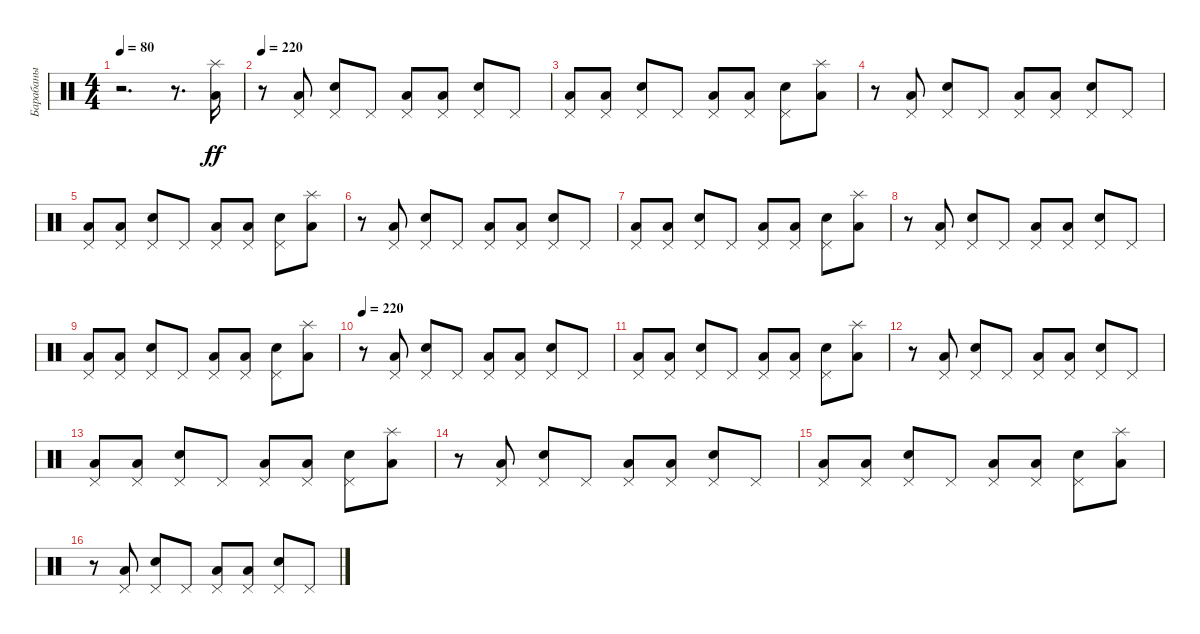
\track ("Барабаны" "Барабаны") {instrument percussion}
\staff {score}
\articulation defaults
\ts (4 4)
\tempo 80
\clef neutral
\ks c
r.2{d dy ff} r.8{d} ("Low Floor Tom (hit)" "Splash (hit)").16 |
\tempo 220
r.8 ("Low Floor Tom (hit)" "Pedal Hi-Hat (hit)").8 ("Electric Snare (hit)" "Pedal Hi-Hat (hit)").8 "Pedal Hi-Hat (hit)".8 ("Low Floor Tom (hit)" "Pedal Hi-Hat (hit)").8 ("Low Floor Tom (hit)" "Pedal Hi-Hat (hit)").8 ("Electric Snare (hit)" "Pedal Hi-Hat (hit)").8 "Pedal Hi-Hat (hit)".8 |
("Low Floor Tom (hit)" "Pedal Hi-Hat (hit)").8 ("Low Floor Tom (hit)" "Pedal Hi-Hat (hit)").8 ("Electric Snare (hit)" "Pedal Hi-Hat (hit)").8 "Pedal Hi-Hat (hit)".8 ("Low Floor Tom (hit)" "Pedal Hi-Hat (hit)").8 ("Low Floor Tom (hit)" "Pedal Hi-Hat (hit)").8 ("Electric Snare (hit)" "Pedal Hi-Hat (hit)").8 ("Low Floor Tom (hit)" "Splash (hit)").8 |
r.8 ("Low Floor Tom (hit)" "Pedal Hi-Hat (hit)").8 ("Electric Snare (hit)" "Pedal Hi-Hat (hit)").8 "Pedal Hi-Hat (hit)".8 ("Low Floor Tom (hit)" "Pedal Hi-Hat (hit)").8 ("Low Floor Tom (hit)" "Pedal Hi-Hat (hit)").8 ("Electric Snare (hit)" "Pedal Hi-Hat (hit)").8 "Pedal Hi-Hat (hit)".8 |
("Low Floor Tom (hit)" "Pedal Hi-Hat (hit)").8 ("Low Floor Tom (hit)" "Pedal Hi-Hat (hit)").8 ("Electric Snare (hit)" "Pedal Hi-Hat (hit)").8 "Pedal Hi-Hat (hit)".8 ("Low Floor Tom (hit)" "Pedal Hi-Hat (hit)").8 ("Low Floor Tom (hit)" "Pedal Hi-Hat (hit)").8 ("Electric Snare (hit)" "Pedal Hi-Hat (hit)").8 ("Low Floor Tom (hit)" "Splash (hit)").8 |
r.8 ("Low Floor Tom (hit)" "Pedal Hi-Hat (hit)").8 ("Electric Snare (hit)" "Pedal Hi-Hat (hit)").8 "Pedal Hi-Hat (hit)".8 ("Low Floor Tom (hit)" "Pedal Hi-Hat (hit)").8 ("Low Floor Tom (hit)" "Pedal Hi-Hat (hit)").8 ("Electric Snare (hit)" "Pedal Hi-Hat (hit)").8 "Pedal Hi-Hat (hit)".8 |
("Low Floor Tom (hit)" "Pedal Hi-Hat (hit)").8 ("Low Floor Tom (hit)" "Pedal Hi-Hat (hit)").8 ("Electric Snare (hit)" "Pedal Hi-Hat (hit)").8 "Pedal Hi-Hat (hit)".8 ("Low Floor Tom (hit)" "Pedal Hi-Hat (hit)").8 ("Low Floor Tom (hit)" "Pedal Hi-Hat (hit)").8 ("Electric Snare (hit)" "Pedal Hi-Hat (hit)").8 ("Low Floor Tom (hit)" "Splash (hit)").8 |
r.8 ("Low Floor Tom (hit)" "Pedal Hi-Hat (hit)").8 ("Electric Snare (hit)" "Pedal Hi-Hat (hit)").8 "Pedal Hi-Hat (hit)".8 ("Low Floor Tom (hit)" "Pedal Hi-Hat (hit)").8 ("Low Floor Tom (hit)" "Pedal Hi-Hat (hit)").8 ("Electric Snare (hit)" "Pedal Hi-Hat (hit)").8 "Pedal Hi-Hat (hit)".8 |
("Low Floor Tom (hit)" "Pedal Hi-Hat (hit)").8 ("Low Floor Tom (hit)" "Pedal Hi-Hat (hit)").8 ("Electric Snare (hit)" "Pedal Hi-Hat (hit)").8 "Pedal Hi-Hat (hit)".8 ("Low Floor Tom (hit)" "Pedal Hi-Hat (hit)").8 ("Low Floor Tom (hit)" "Pedal Hi-Hat (hit)").8 ("Electric Snare (hit)" "Pedal Hi-Hat (hit)").8 ("Low Floor Tom (hit)" "Splash (hit)").8 |
\tempo 220
r.8 ("Low Floor Tom (hit)" "Pedal Hi-Hat (hit)").8 ("Electric Snare (hit)" "Pedal Hi-Hat (hit)").8 "Pedal Hi-Hat (hit)".8 ("Low Floor Tom (hit)" "Pedal Hi-Hat (hit)").8 ("Low Floor Tom (hit)" "Pedal Hi-Hat (hit)").8 ("Electric Snare (hit)" "Pedal Hi-Hat (hit)").8 "Pedal Hi-Hat (hit)".8 |
("Low Floor Tom (hit)" "Pedal Hi-Hat (hit)").8 ("Low Floor Tom (hit)" "Pedal Hi-Hat (hit)").8 ("Electric Snare (hit)" "Pedal Hi-Hat (hit)").8 "Pedal Hi-Hat (hit)".8 ("Low Floor Tom (hit)" "Pedal Hi-Hat (hit)").8 ("Low Floor Tom (hit)" "Pedal Hi-Hat (hit)").8 ("Electric Snare (hit)" "Pedal Hi-Hat (hit)").8 ("Low Floor Tom (hit)" "Splash (hit)").8 |
r.8 ("Low Floor Tom (hit)" "Pedal Hi-Hat (hit)").8 ("Electric Snare (hit)" "Pedal Hi-Hat (hit)").8 "Pedal Hi-Hat (hit)".8 ("Low Floor Tom (hit)" "Pedal Hi-Hat (hit)").8 ("Low Floor Tom (hit)" "Pedal Hi-Hat (hit)").8 ("Electric Snare (hit)" "Pedal Hi-Hat (hit)").8 "Pedal Hi-Hat (hit)".8 |
("Low Floor Tom (hit)" "Pedal Hi-Hat (hit)").8 ("Low Floor Tom (hit)" "Pedal Hi-Hat (hit)").8 ("Electric Snare (hit)" "Pedal Hi-Hat (hit)").8 "Pedal Hi-Hat (hit)".8 ("Low Floor Tom (hit)" "Pedal Hi-Hat (hit)").8 ("Low Floor Tom (hit)" "Pedal Hi-Hat (hit)").8 ("Electric Snare (hit)" "Pedal Hi-Hat (hit)").8 ("Low Floor Tom (hit)" "Splash (hit)").8 |
r.8 ("Low Floor Tom (hit)" "Pedal Hi-Hat (hit)").8 ("Electric Snare (hit)" "Pedal Hi-Hat (hit)").8 "Pedal Hi-Hat (hit)".8 ("Low Floor Tom (hit)" "Pedal Hi-Hat (hit)").8 ("Low Floor Tom (hit)" "Pedal Hi-Hat (hit)").8 ("Electric Snare (hit)" "Pedal Hi-Hat (hit)").8 "Pedal Hi-Hat (hit)".8 |
("Low Floor Tom (hit)" "Pedal Hi-Hat (hit)").8 ("Low Floor Tom (hit)" "Pedal Hi-Hat (hit)").8 ("Electric Snare (hit)" "Pedal Hi-Hat (hit)").8 "Pedal Hi-Hat (hit)".8 ("Low Floor Tom (hit)" "Pedal Hi-Hat (hit)").8 ("Low Floor Tom (hit)" "Pedal Hi-Hat (hit)").8 ("Electric Snare (hit)" "Pedal Hi-Hat (hit)").8 ("Low Floor Tom (hit)" "Splash (hit)").8 |
r.8 ("Low Floor Tom (hit)" "Pedal Hi-Hat (hit)").8 ("Electric Snare (hit)" "Pedal Hi-Hat (hit)").8 "Pedal Hi-Hat (hit)".8 ("Low Floor Tom (hit)" "Pedal Hi-Hat (hit)").8 ("Low Floor Tom (hit)" "Pedal Hi-Hat (hit)").8 ("Electric Snare (hit)" "Pedal Hi-Hat (hit)").8 "Pedal Hi-Hat (hit)".8
